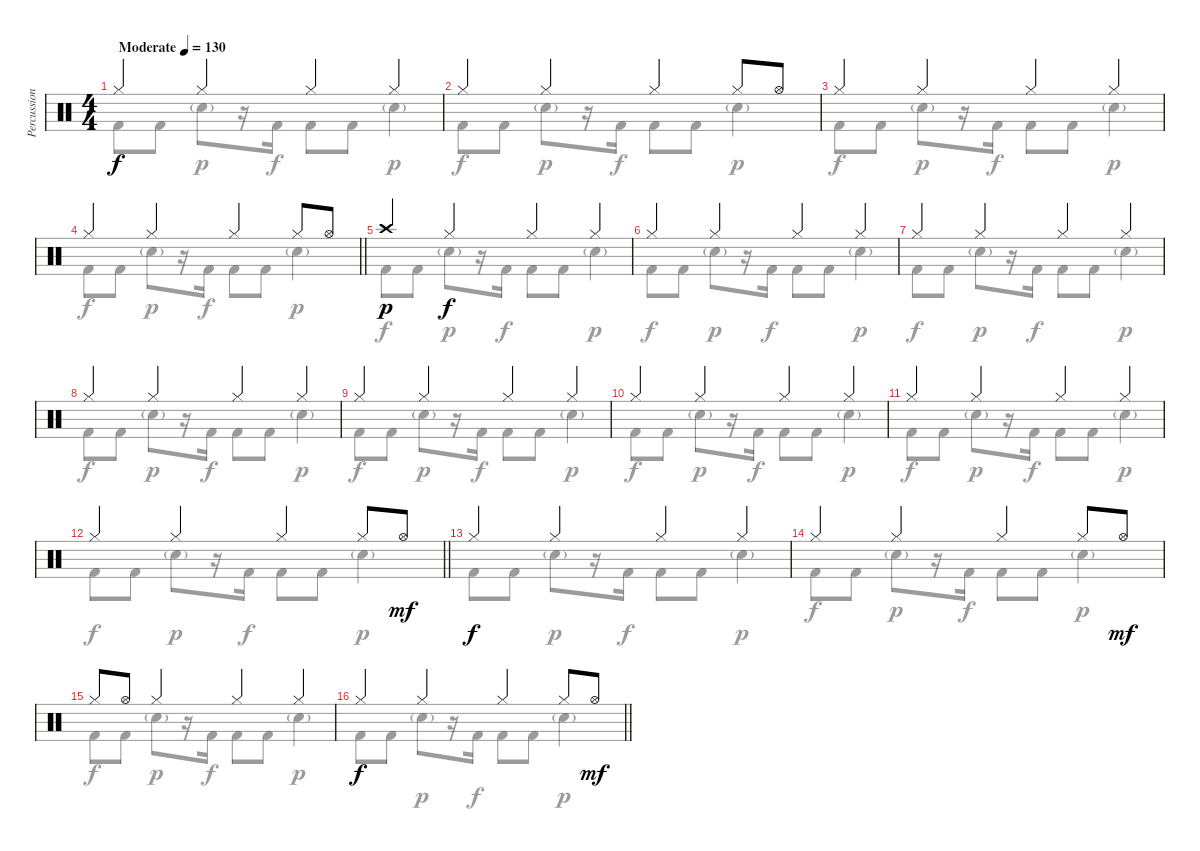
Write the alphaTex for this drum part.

\track ("Percussion" "Percussion") {instrument percussion}
\staff {score}
\articulation defaults
\voice
\ts (4 4)
\tempo (130 "Moderate")
\clef neutral
\ks c "Hi-Hat (closed)".4{dy f} "Hi-Hat (closed)".4 "Hi-Hat (closed)".4 "Hi-Hat (closed)".4
|
"Hi-Hat (closed)".4 "Hi-Hat (closed)".4 "Hi-Hat (closed)".4 "Hi-Hat (closed)".8 "Hi-Hat (open)".8 |
"Hi-Hat (closed)".4 "Hi-Hat (closed)".4 "Hi-Hat (closed)".4 "Hi-Hat (closed)".4 |
\barLineRight lightlight "Hi-Hat (closed)".4 "Hi-Hat (closed)".4 "Hi-Hat (closed)".4 "Hi-Hat (closed)".8 "Hi-Hat (open)".8
|
"Crash high (hit)".4{dy p} "Hi-Hat (closed)".4{dy f} "Hi-Hat (closed)".4 "Hi-Hat (closed)".4 |
"Hi-Hat (closed)".4 "Hi-Hat (closed)".4 "Hi-Hat (closed)".4 "Hi-Hat (closed)".4 |
"Hi-Hat (closed)".4 "Hi-Hat (closed)".4 "Hi-Hat (closed)".4 "Hi-Hat (closed)".4 |
"Hi-Hat (closed)".4 "Hi-Hat (closed)".4 "Hi-Hat (closed)".4 "Hi-Hat (closed)".4 |
"Hi-Hat (closed)".4 "Hi-Hat (closed)".4 "Hi-Hat (closed)".4 "Hi-Hat (closed)".4 |
"Hi-Hat (closed)".4 "Hi-Hat (closed)".4 "Hi-Hat (closed)".4 "Hi-Hat (closed)".4 |
"Hi-Hat (closed)".4 "Hi-Hat (closed)".4 "Hi-Hat (closed)".4 "Hi-Hat (closed)".4 |
\barLineRight lightlight "Hi-Hat (closed)".4 "Hi-Hat (closed)".4 "Hi-Hat (closed)".4 "Hi-Hat (closed)".8 "Hi-Hat (open)".8{dy mf}
|
"Hi-Hat (closed)".4{dy f} "Hi-Hat (closed)".4 "Hi-Hat (closed)".4 "Hi-Hat (closed)".4 |
"Hi-Hat (closed)".4 "Hi-Hat (closed)".4 "Hi-Hat (closed)".4 "Hi-Hat (closed)".8 "Hi-Hat (open)".8{dy mf} |
"Hi-Hat (closed)".8 "Hi-Hat (open)".8 "Hi-Hat (closed)".4 "Hi-Hat (closed)".4 "Hi-Hat (closed)".4 |
\barLineRight lightlight "Hi-Hat (closed)".4{dy f} "Hi-Hat (closed)".4 "Hi-Hat (closed)".4 "Hi-Hat (closed)".8 "Hi-Hat (open)".8{dy mf}
\voice
\clef neutral
\ottava regular
\simile none
\ks c "Kick (hit) 2".8{dy f} "Kick (hit) 2".8 "Electric Snare (hit)"{g}.8{dy p}
r.16 "Kick (hit) 2".16{dy f} "Kick (hit) 2".8 "Kick (hit) 2".8 "Electric Snare (hit)"{g}.4{dy p} |
"Kick (hit) 2".8{dy f} "Kick (hit) 2".8 "Electric Snare (hit)"{g}.8{dy p} r.16 "Kick (hit) 2".16{dy f} "Kick (hit) 2".8 "Kick (hit) 2".8 "Electric Snare (hit)"{g}.4{dy p} |
"Kick (hit) 2".8{dy f} "Kick (hit) 2".8 "Electric Snare (hit)"{g}.8{dy p} r.16 "Kick (hit) 2".16{dy f} "Kick (hit) 2".8 "Kick (hit) 2".8 "Electric Snare (hit)"{g}.4{dy p} |
\barLineRight lightlight "Kick (hit) 2".8{dy f} "Kick (hit) 2".8 "Electric Snare (hit)"{g}.8{dy p}
r.16 "Kick (hit) 2".16{dy f} "Kick (hit) 2".8 "Kick (hit) 2".8 "Electric Snare (hit)"{g}.4{dy p} |
"Kick (hit) 2".8{dy f} "Kick (hit) 2".8 "Electric Snare (hit)"{g}.8{dy p} r.16 "Kick (hit) 2".16{dy f} "Kick (hit) 2".8 "Kick (hit) 2".8 "Electric Snare (hit)"{g}.4{dy p} |
"Kick (hit) 2".8{dy f} "Kick (hit) 2".8 "Electric Snare (hit)"{g}.8{dy p} r.16 "Kick (hit) 2".16{dy f} "Kick (hit) 2".8 "Kick (hit) 2".8 "Electric Snare (hit)"{g}.4{dy p} |
"Kick (hit) 2".8{dy f} "Kick (hit) 2".8 "Electric Snare (hit)"{g}.8{dy p} r.16 "Kick (hit) 2".16{dy f} "Kick (hit) 2".8 "Kick (hit) 2".8 "Electric Snare (hit)"{g}.4{dy p} |
"Kick (hit) 2".8{dy f} "Kick (hit) 2".8 "Electric Snare (hit)"{g}.8{dy p} r.16 "Kick (hit) 2".16{dy f} "Kick (hit) 2".8 "Kick (hit) 2".8 "Electric Snare (hit)"{g}.4{dy p} |
"Kick (hit) 2".8{dy f} "Kick (hit) 2".8 "Electric Snare (hit)"{g}.8{dy p} r.16 "Kick (hit) 2".16{dy f} "Kick (hit) 2".8 "Kick (hit) 2".8 "Electric Snare (hit)"{g}.4{dy p} |
"Kick (hit) 2".8{dy f} "Kick (hit) 2".8 "Electric Snare (hit)"{g}.8{dy p} r.16 "Kick (hit) 2".16{dy f} "Kick (hit) 2".8 "Kick (hit) 2".8 "Electric Snare (hit)"{g}.4{dy p} |
"Kick (hit) 2".8{dy f} "Kick (hit) 2".8 "Electric Snare (hit)"{g}.8{dy p} r.16 "Kick (hit) 2".16{dy f} "Kick (hit) 2".8 "Kick (hit) 2".8 "Electric Snare (hit)"{g}.4{dy p} |
\barLineRight lightlight "Kick (hit) 2".8{dy f} "Kick (hit) 2".8 "Electric Snare (hit)"{g}.8{dy p}
r.16 "Kick (hit) 2".16{dy f} "Kick (hit) 2".8 "Kick (hit) 2".8 "Electric Snare (hit)"{g}.4{dy p} |
"Kick (hit) 2".8{dy f} "Kick (hit) 2".8 "Electric Snare (hit)"{g}.8{dy p} r.16 "Kick (hit) 2".16{dy f} "Kick (hit) 2".8 "Kick (hit) 2".8 "Electric Snare (hit)"{g}.4{dy p} |
"Kick (hit) 2".8{dy f} "Kick (hit) 2".8 "Electric Snare (hit)"{g}.8{dy p} r.16 "Kick (hit) 2".16{dy f} "Kick (hit) 2".8 "Kick (hit) 2".8 "Electric Snare (hit)"{g}.4{dy p} |
"Kick (hit) 2".8{dy f} "Kick (hit) 2".8 "Electric Snare (hit)"{g}.8{dy p} r.16 "Kick (hit) 2".16{dy f} "Kick (hit) 2".8 "Kick (hit) 2".8 "Electric Snare (hit)"{g}.4{dy p} |
\barLineRight lightlight "Kick (hit) 2".8{dy f} "Kick (hit) 2".8 "Electric Snare (hit)"{g}.8{dy p}
r.16 "Kick (hit) 2".16{dy f} "Kick (hit) 2".8 "Kick (hit) 2".8 "Electric Snare (hit)"{g}.4{dy p}
